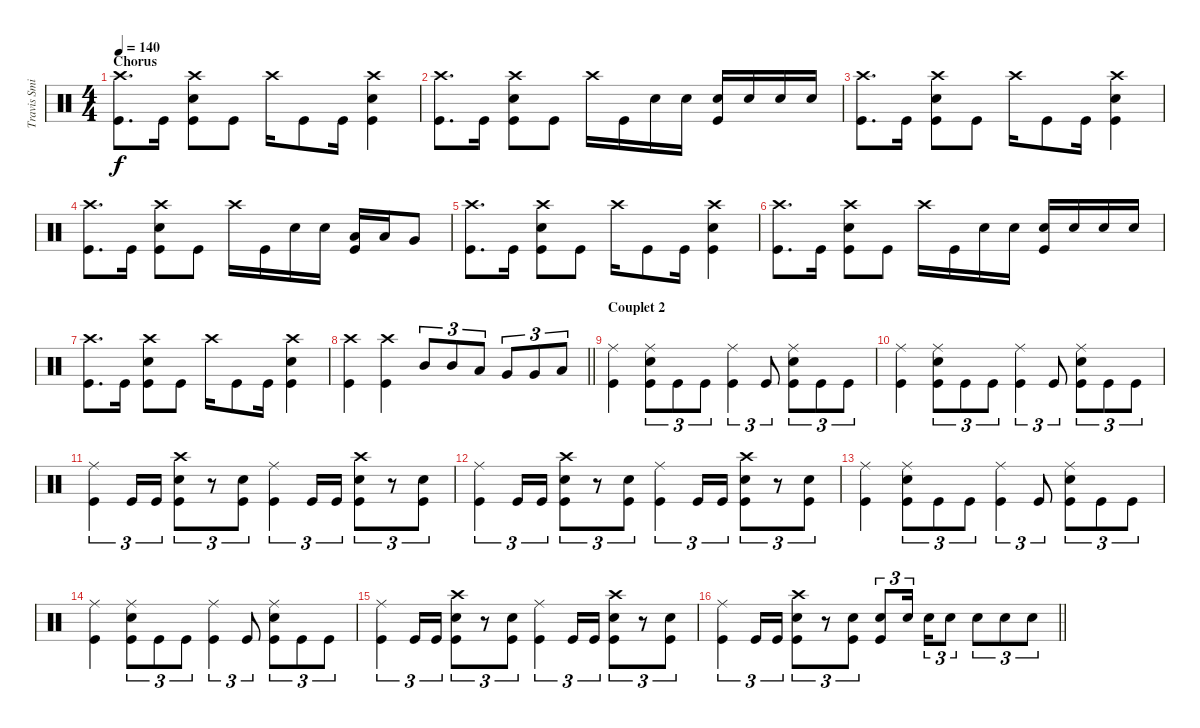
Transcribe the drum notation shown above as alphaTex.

\track ("Travis Smith" "Travis Smi") {instrument percussion}
\staff {score}
\articulation defaults
\ts (4 4)
\section ("" "Chorus")
\tempo 140
\clef neutral
\ks c
("Crash high (hit)" "Kick (hit)").8{d dy f} "Kick (hit)".16 ("Crash high (hit)" "Snare (hit) 2" "Kick (hit)").8 "Kick (hit)".8 "Crash high (hit)".16 "Kick (hit)".8 "Kick (hit)".16 ("Crash high (hit)" "Snare (hit) 2" "Kick (hit)").4 |
("Crash high (hit)" "Kick (hit)").8{d} "Kick (hit)".16 ("Crash high (hit)" "Snare (hit) 2" "Kick (hit)").8 "Kick (hit)".8 "Crash high (hit)".16 "Kick (hit)".16 "Snare (hit) 2".16 "Snare (hit) 2".16 ("Snare (hit) 2" "Kick (hit)").16 "Snare (hit) 2".16 "Snare (hit) 2".16 "Snare (hit) 2".16 |
("Crash high (hit)" "Kick (hit)").8{d} "Kick (hit)".16 ("Crash high (hit)" "Snare (hit) 2" "Kick (hit)").8 "Kick (hit)".8 "Crash high (hit)".16 "Kick (hit)".8 "Kick (hit)".16 ("Crash high (hit)" "Snare (hit) 2" "Kick (hit)").4 |
("Crash high (hit)" "Kick (hit)").8{d} "Kick (hit)".16 ("Crash high (hit)" "Snare (hit) 2" "Kick (hit)").8 "Kick (hit)".8 "Crash high (hit)".16 "Kick (hit)".16 "Snare (hit) 2".16 "Snare (hit) 2".16 ("Low Tom (hit)" "Kick (hit)").16 "Low Tom (hit)".16 "Very Low Tom (hit)".8 |
("Crash high (hit)" "Kick (hit)").8{d} "Kick (hit)".16 ("Crash high (hit)" "Snare (hit) 2" "Kick (hit)").8 "Kick (hit)".8 "Crash high (hit)".16 "Kick (hit)".8 "Kick (hit)".16 ("Crash high (hit)" "Snare (hit) 2" "Kick (hit)").4 |
("Crash high (hit)" "Kick (hit)").8{d} "Kick (hit)".16 ("Crash high (hit)" "Snare (hit) 2" "Kick (hit)").8 "Kick (hit)".8 "Crash high (hit)".16 "Kick (hit)".16 "Snare (hit) 2".16 "Snare (hit) 2".16 ("Snare (hit) 2" "Kick (hit)").16 "Snare (hit) 2".16 "Snare (hit) 2".16 "Snare (hit) 2".16 |
("Crash high (hit)" "Kick (hit)").8{d} "Kick (hit)".16 ("Crash high (hit)" "Snare (hit) 2" "Kick (hit)").8 "Kick (hit)".8 "Crash high (hit)".16 "Kick (hit)".8 "Kick (hit)".16 ("Crash high (hit)" "Snare (hit) 2" "Kick (hit)").4 |
\barLineRight lightlight
("Crash high (hit)" "Kick (hit)").4 ("Crash high (hit)" "Kick (hit)").4 "Mid Tom (hit)".8{tu (3 2)} "Mid Tom (hit)".8{tu (3 2)} "Low Tom (hit)".8{tu (3 2)} "Very Low Tom (hit)".8{tu (3 2)} "Very Low Tom (hit)".8{tu (3 2)} "Low Floor Tom (hit)".8{tu (3 2)} |
\section ("" "Couplet 2")
("Ride (middle)" "Kick (hit)").4 ("Ride (middle)" "Snare (hit) 2" "Kick (hit)").8{tu (3 2)} "Kick (hit)".8{tu (3 2)} "Kick (hit)".8{tu (3 2)} ("Ride (middle)" "Kick (hit)").4{tu (3 2)} "Kick (hit)".8{tu (3 2)} ("Ride (middle)" "Snare (hit) 2" "Kick (hit)").8{tu (3 2)} "Kick (hit)".8{tu (3 2)} "Kick (hit)".8{tu (3 2)} |
("Ride (middle)" "Kick (hit)").4 ("Ride (middle)" "Snare (hit) 2" "Kick (hit)").8{tu (3 2)} "Kick (hit)".8{tu (3 2)} "Kick (hit)".8{tu (3 2)} ("Ride (middle)" "Kick (hit)").4{tu (3 2)} "Kick (hit)".8{tu (3 2)} ("Ride (middle)" "Snare (hit) 2" "Kick (hit)").8{tu (3 2)} "Kick (hit)".8{tu (3 2)} "Kick (hit)".8{tu (3 2)} |
("Ride (middle)" "Kick (hit)").4{tu (3 2)} "Kick (hit)".16{tu (3 2)} "Kick (hit)".16{tu (3 2)} ("Crash high (hit)" "Snare (hit) 2" "Kick (hit)").8{tu (3 2)} r.8{tu (3 2)} ("Snare (hit) 2" "Kick (hit)").8{tu (3 2)} ("Ride (middle)" "Kick (hit)").4{tu (3 2)} "Kick (hit)".16{tu (3 2)} "Kick (hit)".16{tu (3 2)} ("Crash high (hit)" "Snare (hit) 2" "Kick (hit)").8{tu (3 2)} r.8{tu (3 2)} ("Snare (hit) 2" "Kick (hit)").8{tu (3 2)} |
("Ride (middle)" "Kick (hit)").4{tu (3 2)} "Kick (hit)".16{tu (3 2)} "Kick (hit)".16{tu (3 2)} ("Crash high (hit)" "Snare (hit) 2" "Kick (hit)").8{tu (3 2)} r.8{tu (3 2)} ("Snare (hit) 2" "Kick (hit)").8{tu (3 2)} ("Ride (middle)" "Kick (hit)").4{tu (3 2)} "Kick (hit)".16{tu (3 2)} "Kick (hit)".16{tu (3 2)} ("Crash high (hit)" "Snare (hit) 2" "Kick (hit)").8{tu (3 2)} r.8{tu (3 2)} ("Snare (hit) 2" "Kick (hit)").8{tu (3 2)} |
("Ride (middle)" "Kick (hit)").4 ("Ride (middle)" "Snare (hit) 2" "Kick (hit)").8{tu (3 2)} "Kick (hit)".8{tu (3 2)} "Kick (hit)".8{tu (3 2)} ("Ride (middle)" "Kick (hit)").4{tu (3 2)} "Kick (hit)".8{tu (3 2)} ("Ride (middle)" "Snare (hit) 2" "Kick (hit)").8{tu (3 2)} "Kick (hit)".8{tu (3 2)} "Kick (hit)".8{tu (3 2)} |
("Ride (middle)" "Kick (hit)").4 ("Ride (middle)" "Snare (hit) 2" "Kick (hit)").8{tu (3 2)} "Kick (hit)".8{tu (3 2)} "Kick (hit)".8{tu (3 2)} ("Ride (middle)" "Kick (hit)").4{tu (3 2)} "Kick (hit)".8{tu (3 2)} ("Ride (middle)" "Snare (hit) 2" "Kick (hit)").8{tu (3 2)} "Kick (hit)".8{tu (3 2)} "Kick (hit)".8{tu (3 2)} |
("Ride (middle)" "Kick (hit)").4{tu (3 2)} "Kick (hit)".16{tu (3 2)} "Kick (hit)".16{tu (3 2)} ("Crash high (hit)" "Snare (hit) 2" "Kick (hit)").8{tu (3 2)} r.8{tu (3 2)} ("Snare (hit) 2" "Kick (hit)").8{tu (3 2)} ("Ride (middle)" "Kick (hit)").4{tu (3 2)} "Kick (hit)".16{tu (3 2)} "Kick (hit)".16{tu (3 2)} ("Crash high (hit)" "Snare (hit) 2" "Kick (hit)").8{tu (3 2)} r.8{tu (3 2)} ("Snare (hit) 2" "Kick (hit)").8{tu (3 2)} |
\barLineRight lightlight
("Ride (middle)" "Kick (hit)").4{tu (3 2)} "Kick (hit)".16{tu (3 2)} "Kick (hit)".16{tu (3 2)} ("Crash high (hit)" "Snare (hit) 2" "Kick (hit)").8{tu (3 2)} r.8{tu (3 2)} ("Snare (hit) 2" "Kick (hit)").8{tu (3 2)} ("Snare (hit) 2" "Kick (hit)").8{tu (3 2)} "Snare (hit) 2".16{tu (3 2) beam splitsecondary} "Snare (hit) 2".16{tu (3 2)} "Snare (hit) 2".8{tu (3 2)} "Snare (hit) 2".8{tu (3 2)} "Snare (hit) 2".8{tu (3 2)} "Snare (hit) 2".8{tu (3 2)}
